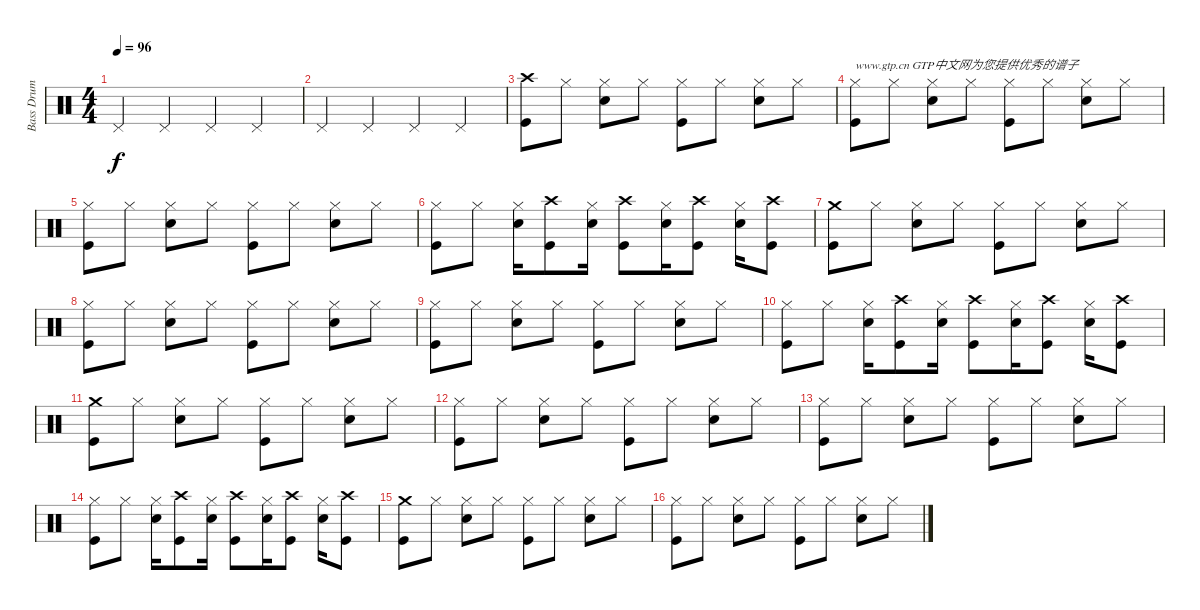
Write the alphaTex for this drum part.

\track ("Bass Drum" "Bass Drum") {instrument percussion}
\staff {score}
\articulation defaults
\ts (4 4)
\tempo 96
\clef neutral
\ks c "Pedal Hi-Hat (hit)".4{dy f} "Pedal Hi-Hat (hit)".4 "Pedal Hi-Hat (hit)".4 "Pedal Hi-Hat (hit)".4
|
"Pedal Hi-Hat (hit)".4 "Pedal Hi-Hat (hit)".4 "Pedal Hi-Hat (hit)".4 "Pedal Hi-Hat (hit)".4 |
("Crash high (hit)" "Kick (hit)").8 "Hi-Hat (closed)".8 ("Hi-Hat (closed)" "Electric Snare (hit)").8 "Hi-Hat (closed)".8 ("Hi-Hat (closed)" "Kick (hit)").8 "Hi-Hat (closed)".8 ("Hi-Hat (closed)" "Electric Snare (hit)").8 "Hi-Hat (closed)".8 |
("Hi-Hat (closed)" "Kick (hit)").8{txt "www.gtp.cn GTP中文网为您提供优秀的谱子"} "Hi-Hat (closed)".8 ("Hi-Hat (closed)" "Electric Snare (hit)").8 "Hi-Hat (closed)".8 ("Hi-Hat (closed)" "Kick (hit)").8 "Hi-Hat (closed)".8 ("Hi-Hat (closed)" "Electric Snare (hit)").8 "Hi-Hat (closed)".8 |
("Hi-Hat (closed)" "Kick (hit)").8 "Hi-Hat (closed)".8 ("Hi-Hat (closed)" "Electric Snare (hit)").8 "Hi-Hat (closed)".8 ("Hi-Hat (closed)" "Kick (hit)").8 "Hi-Hat (closed)".8 ("Hi-Hat (closed)" "Electric Snare (hit)").8 "Hi-Hat (closed)".8 |
("Hi-Hat (closed)" "Kick (hit)").8 "Hi-Hat (closed)".8 ("Hi-Hat (closed)" "Electric Snare (hit)").16 ("Crash high (hit)" "Kick (hit)").8 ("Hi-Hat (closed)" "Electric Snare (hit)").16 ("Crash high (hit)" "Kick (hit)").8 ("Hi-Hat (closed)" "Electric Snare (hit)").16 ("Crash high (hit)" "Kick (hit)").8 ("Hi-Hat (closed)" "Electric Snare (hit)").16 ("Crash high (hit)" "Kick (hit)").8 |
("Crash medium (hit)" "Kick (hit)").8 "Hi-Hat (closed)".8 ("Hi-Hat (closed)" "Electric Snare (hit)").8 "Hi-Hat (closed)".8 ("Hi-Hat (closed)" "Kick (hit)").8 "Hi-Hat (closed)".8 ("Hi-Hat (closed)" "Electric Snare (hit)").8 "Hi-Hat (closed)".8 |
("Hi-Hat (closed)" "Kick (hit)").8 "Hi-Hat (closed)".8 ("Hi-Hat (closed)" "Electric Snare (hit)").8 "Hi-Hat (closed)".8 ("Hi-Hat (closed)" "Kick (hit)").8 "Hi-Hat (closed)".8 ("Hi-Hat (closed)" "Electric Snare (hit)").8 "Hi-Hat (closed)".8 |
("Hi-Hat (closed)" "Kick (hit)").8 "Hi-Hat (closed)".8 ("Hi-Hat (closed)" "Electric Snare (hit)").8 "Hi-Hat (closed)".8 ("Hi-Hat (closed)" "Kick (hit)").8 "Hi-Hat (closed)".8 ("Hi-Hat (closed)" "Electric Snare (hit)").8 "Hi-Hat (closed)".8 |
("Hi-Hat (closed)" "Kick (hit)").8 "Hi-Hat (closed)".8 ("Hi-Hat (closed)" "Electric Snare (hit)").16 ("Crash high (hit)" "Kick (hit)").8 ("Hi-Hat (closed)" "Electric Snare (hit)").16 ("Crash high (hit)" "Kick (hit)").8 ("Hi-Hat (closed)" "Electric Snare (hit)").16 ("Crash high (hit)" "Kick (hit)").8 ("Hi-Hat (closed)" "Electric Snare (hit)").16 ("Crash high (hit)" "Kick (hit)").8 |
("Crash medium (hit)" "Kick (hit)").8 "Hi-Hat (closed)".8 ("Hi-Hat (closed)" "Electric Snare (hit)").8 "Hi-Hat (closed)".8 ("Hi-Hat (closed)" "Kick (hit)").8 "Hi-Hat (closed)".8 ("Hi-Hat (closed)" "Electric Snare (hit)").8 "Hi-Hat (closed)".8 |
("Hi-Hat (closed)" "Kick (hit)").8 "Hi-Hat (closed)".8 ("Hi-Hat (closed)" "Electric Snare (hit)").8 "Hi-Hat (closed)".8 ("Hi-Hat (closed)" "Kick (hit)").8 "Hi-Hat (closed)".8 ("Hi-Hat (closed)" "Electric Snare (hit)").8 "Hi-Hat (closed)".8 |
("Hi-Hat (closed)" "Kick (hit)").8 "Hi-Hat (closed)".8 ("Hi-Hat (closed)" "Electric Snare (hit)").8 "Hi-Hat (closed)".8 ("Hi-Hat (closed)" "Kick (hit)").8 "Hi-Hat (closed)".8 ("Hi-Hat (closed)" "Electric Snare (hit)").8 "Hi-Hat (closed)".8 |
("Hi-Hat (closed)" "Kick (hit)").8 "Hi-Hat (closed)".8 ("Hi-Hat (closed)" "Electric Snare (hit)").16 ("Crash high (hit)" "Kick (hit)").8 ("Hi-Hat (closed)" "Electric Snare (hit)").16 ("Crash high (hit)" "Kick (hit)").8 ("Hi-Hat (closed)" "Electric Snare (hit)").16 ("Crash high (hit)" "Kick (hit)").8 ("Hi-Hat (closed)" "Electric Snare (hit)").16 ("Crash high (hit)" "Kick (hit)").8 |
("Crash medium (hit)" "Kick (hit)").8 "Hi-Hat (closed)".8 ("Hi-Hat (closed)" "Electric Snare (hit)").8 "Hi-Hat (closed)".8 ("Hi-Hat (closed)" "Kick (hit)").8 "Hi-Hat (closed)".8 ("Hi-Hat (closed)" "Electric Snare (hit)").8 "Hi-Hat (closed)".8 |
("Hi-Hat (closed)" "Kick (hit)").8 "Hi-Hat (closed)".8 ("Hi-Hat (closed)" "Electric Snare (hit)").8 "Hi-Hat (closed)".8 ("Hi-Hat (closed)" "Kick (hit)").8 "Hi-Hat (closed)".8 ("Hi-Hat (closed)" "Electric Snare (hit)").8 "Hi-Hat (closed)".8
